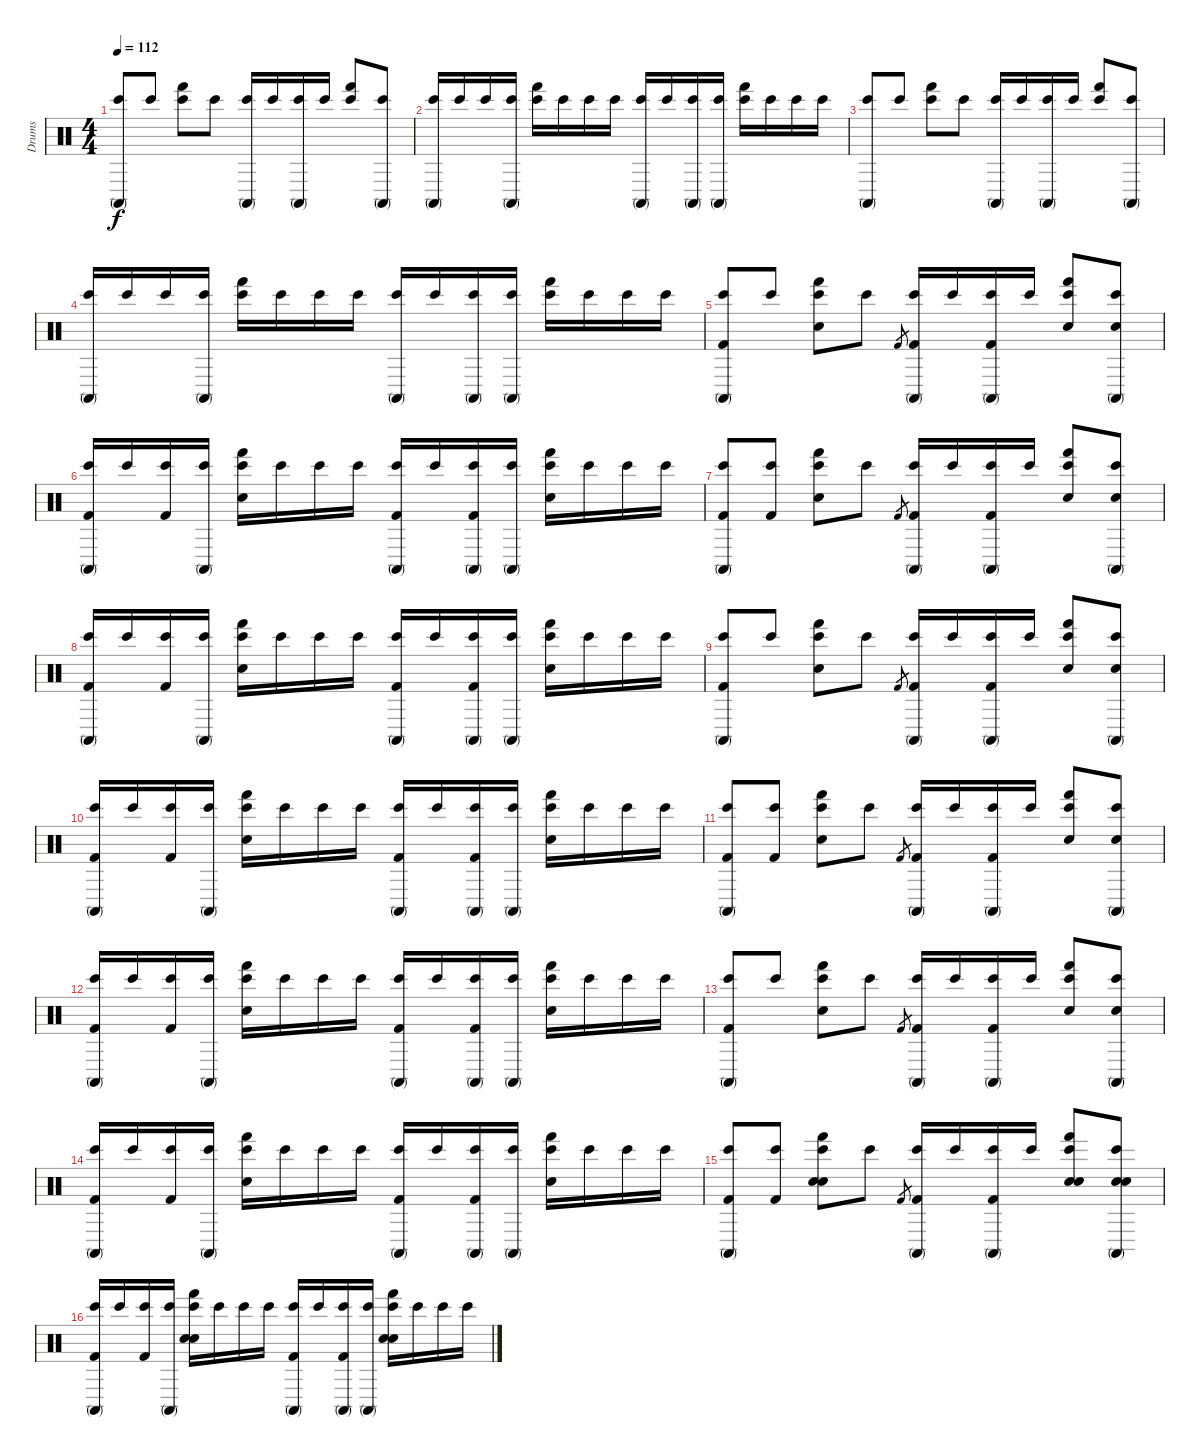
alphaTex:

\track ("Drums" "Drums") {instrument percussion}
\staff {score}
\articulation defaults
\ts (4 4)
\tempo 112
\clef neutral
\ks c
("Conga high (mute)" "Bongo High (hit)").8{dy f} "Bongo High (hit)".8 ("Hand (hit)" "Bongo High (hit)").8 "Bongo High (hit)".8 ("Conga high (mute)" "Bongo High (hit)").16 "Bongo High (hit)".16 ("Conga high (mute)" "Bongo High (hit)").16 "Bongo High (hit)".16 ("Hand (hit)" "Bongo High (hit)").8 ("Conga high (mute)" "Bongo High (hit)").8 |
("Conga high (mute)" "Bongo High (hit)").16 "Bongo High (hit)".16 "Bongo High (hit)".16 ("Conga high (mute)" "Bongo High (hit)").16 ("Hand (hit)" "Bongo High (hit)").16 "Bongo High (hit)".16 "Bongo High (hit)".16 "Bongo High (hit)".16 ("Conga high (mute)" "Bongo High (hit)").16 "Bongo High (hit)".16 ("Conga high (mute)" "Bongo High (hit)").16 ("Conga high (mute)" "Bongo High (hit)").16 ("Hand (hit)" "Bongo High (hit)").16 "Bongo High (hit)".16 "Bongo High (hit)".16 "Bongo High (hit)".16 |
("Conga high (mute)" "Bongo High (hit)").8 "Bongo High (hit)".8 ("Hand (hit)" "Bongo High (hit)").8 "Bongo High (hit)".8 ("Conga high (mute)" "Bongo High (hit)").16 "Bongo High (hit)".16 ("Conga high (mute)" "Bongo High (hit)").16 "Bongo High (hit)".16 ("Hand (hit)" "Bongo High (hit)").8 ("Conga high (mute)" "Bongo High (hit)").8 |
("Conga high (mute)" "Bongo High (hit)").16 "Bongo High (hit)".16 "Bongo High (hit)".16 ("Conga high (mute)" "Bongo High (hit)").16 ("Hand (hit)" "Bongo High (hit)").16 "Bongo High (hit)".16 "Bongo High (hit)".16 "Bongo High (hit)".16 ("Conga high (mute)" "Bongo High (hit)").16 "Bongo High (hit)".16 ("Conga high (mute)" "Bongo High (hit)").16 ("Conga high (mute)" "Bongo High (hit)").16 ("Hand (hit)" "Bongo High (hit)").16 "Bongo High (hit)".16 "Bongo High (hit)".16 "Bongo High (hit)".16 |
("Conga high (mute)" "Bongo High (hit)" "Kick (hit) 2").8 "Bongo High (hit)".8 ("Hand (hit)" "Bongo High (hit)" "Snare (hit) 2").8 "Bongo High (hit)".8 "Kick (hit) 2".8{gr} ("Conga high (mute)" "Bongo High (hit)" "Kick (hit) 2").16 "Bongo High (hit)".16 ("Conga high (mute)" "Bongo High (hit)" "Kick (hit) 2").16 "Bongo High (hit)".16 ("Hand (hit)" "Bongo High (hit)" "Snare (hit) 2").8 ("Conga high (mute)" "Bongo High (hit)" "Snare (hit) 2").8 |
("Conga high (mute)" "Bongo High (hit)" "Kick (hit) 2").16 "Bongo High (hit)".16 ("Bongo High (hit)" "Kick (hit) 2").16 ("Conga high (mute)" "Bongo High (hit)").16 ("Hand (hit)" "Bongo High (hit)" "Snare (hit) 2").16 "Bongo High (hit)".16 "Bongo High (hit)".16 "Bongo High (hit)".16 ("Conga high (mute)" "Bongo High (hit)" "Kick (hit) 2").16 "Bongo High (hit)".16 ("Conga high (mute)" "Bongo High (hit)" "Kick (hit) 2").16 ("Conga high (mute)" "Bongo High (hit)").16 ("Hand (hit)" "Bongo High (hit)" "Snare (hit) 2").16 "Bongo High (hit)".16 "Bongo High (hit)".16 "Bongo High (hit)".16 |
("Conga high (mute)" "Bongo High (hit)" "Kick (hit) 2").8 ("Bongo High (hit)" "Kick (hit) 2").8 ("Hand (hit)" "Bongo High (hit)" "Snare (hit) 2").8 "Bongo High (hit)".8 "Kick (hit) 2".8{gr} ("Conga high (mute)" "Bongo High (hit)" "Kick (hit) 2").16 "Bongo High (hit)".16 ("Conga high (mute)" "Bongo High (hit)" "Kick (hit) 2").16 "Bongo High (hit)".16 ("Hand (hit)" "Bongo High (hit)" "Snare (hit) 2").8 ("Conga high (mute)" "Bongo High (hit)" "Snare (hit) 2").8 |
("Conga high (mute)" "Bongo High (hit)" "Kick (hit) 2").16 "Bongo High (hit)".16 ("Bongo High (hit)" "Kick (hit) 2").16 ("Conga high (mute)" "Bongo High (hit)").16 ("Hand (hit)" "Bongo High (hit)" "Snare (hit) 2").16 "Bongo High (hit)".16 "Bongo High (hit)".16 "Bongo High (hit)".16 ("Conga high (mute)" "Bongo High (hit)" "Kick (hit) 2").16 "Bongo High (hit)".16 ("Conga high (mute)" "Bongo High (hit)" "Kick (hit) 2").16 ("Conga high (mute)" "Bongo High (hit)").16 ("Hand (hit)" "Bongo High (hit)" "Snare (hit) 2").16 "Bongo High (hit)".16 "Bongo High (hit)".16 "Bongo High (hit)".16 |
("Conga high (mute)" "Bongo High (hit)" "Kick (hit) 2").8 "Bongo High (hit)".8 ("Hand (hit)" "Bongo High (hit)" "Snare (hit) 2").8 "Bongo High (hit)".8 "Kick (hit) 2".8{gr} ("Conga high (mute)" "Bongo High (hit)" "Kick (hit) 2").16 "Bongo High (hit)".16 ("Conga high (mute)" "Bongo High (hit)" "Kick (hit) 2").16 "Bongo High (hit)".16 ("Hand (hit)" "Bongo High (hit)" "Snare (hit) 2").8 ("Conga high (mute)" "Bongo High (hit)" "Snare (hit) 2").8 |
("Conga high (mute)" "Bongo High (hit)" "Kick (hit) 2").16 "Bongo High (hit)".16 ("Bongo High (hit)" "Kick (hit) 2").16 ("Conga high (mute)" "Bongo High (hit)").16 ("Hand (hit)" "Bongo High (hit)" "Snare (hit) 2").16 "Bongo High (hit)".16 "Bongo High (hit)".16 "Bongo High (hit)".16 ("Conga high (mute)" "Bongo High (hit)" "Kick (hit) 2").16 "Bongo High (hit)".16 ("Conga high (mute)" "Bongo High (hit)" "Kick (hit) 2").16 ("Conga high (mute)" "Bongo High (hit)").16 ("Hand (hit)" "Bongo High (hit)" "Snare (hit) 2").16 "Bongo High (hit)".16 "Bongo High (hit)".16 "Bongo High (hit)".16 |
("Conga high (mute)" "Bongo High (hit)" "Kick (hit) 2").8 ("Bongo High (hit)" "Kick (hit) 2").8 ("Hand (hit)" "Bongo High (hit)" "Snare (hit) 2").8 "Bongo High (hit)".8 "Kick (hit) 2".8{gr} ("Conga high (mute)" "Bongo High (hit)" "Kick (hit) 2").16 "Bongo High (hit)".16 ("Conga high (mute)" "Bongo High (hit)" "Kick (hit) 2").16 "Bongo High (hit)".16 ("Hand (hit)" "Bongo High (hit)" "Snare (hit) 2").8 ("Conga high (mute)" "Bongo High (hit)" "Snare (hit) 2").8 |
("Conga high (mute)" "Bongo High (hit)" "Kick (hit) 2").16 "Bongo High (hit)".16 ("Bongo High (hit)" "Kick (hit) 2").16 ("Conga high (mute)" "Bongo High (hit)").16 ("Hand (hit)" "Bongo High (hit)" "Snare (hit) 2").16 "Bongo High (hit)".16 "Bongo High (hit)".16 "Bongo High (hit)".16 ("Conga high (mute)" "Bongo High (hit)" "Kick (hit) 2").16 "Bongo High (hit)".16 ("Conga high (mute)" "Bongo High (hit)" "Kick (hit) 2").16 ("Conga high (mute)" "Bongo High (hit)").16 ("Hand (hit)" "Bongo High (hit)" "Snare (hit) 2").16 "Bongo High (hit)".16 "Bongo High (hit)".16 "Bongo High (hit)".16 |
("Conga high (mute)" "Bongo High (hit)" "Kick (hit) 2").8 "Bongo High (hit)".8 ("Hand (hit)" "Bongo High (hit)" "Snare (hit) 2").8 "Bongo High (hit)".8 "Kick (hit) 2".8{gr} ("Conga high (mute)" "Bongo High (hit)" "Kick (hit) 2").16 "Bongo High (hit)".16 ("Conga high (mute)" "Bongo High (hit)" "Kick (hit) 2").16 "Bongo High (hit)".16 ("Hand (hit)" "Bongo High (hit)" "Snare (hit) 2").8 ("Conga high (mute)" "Bongo High (hit)" "Snare (hit) 2").8 |
("Conga high (mute)" "Bongo High (hit)" "Kick (hit) 2").16 "Bongo High (hit)".16 ("Bongo High (hit)" "Kick (hit) 2").16 ("Conga high (mute)" "Bongo High (hit)").16 ("Hand (hit)" "Bongo High (hit)" "Snare (hit) 2").16 "Bongo High (hit)".16 "Bongo High (hit)".16 "Bongo High (hit)".16 ("Conga high (mute)" "Bongo High (hit)" "Kick (hit) 2").16 "Bongo High (hit)".16 ("Conga high (mute)" "Bongo High (hit)" "Kick (hit) 2").16 ("Conga high (mute)" "Bongo High (hit)").16 ("Hand (hit)" "Bongo High (hit)" "Snare (hit) 2").16 "Bongo High (hit)".16 "Bongo High (hit)".16 "Bongo High (hit)".16 |
("Conga high (mute)" "Bongo High (hit)" "Kick (hit) 2").8 ("Bongo High (hit)" "Kick (hit) 2").8 ("Hand (hit)" "Bongo High (hit)" "Electric Snare (hit)" "Snare (hit) 2").8 "Bongo High (hit)".8 "Kick (hit) 2".8{gr} ("Conga high (mute)" "Bongo High (hit)" "Kick (hit) 2").16 "Bongo High (hit)".16 ("Conga high (mute)" "Bongo High (hit)" "Kick (hit) 2").16 "Bongo High (hit)".16 ("Hand (hit)" "Bongo High (hit)" "Electric Snare (hit)" "Snare (hit) 2").8 ("Conga high (mute)" "Bongo High (hit)" "Electric Snare (hit)" "Snare (hit) 2").8 |
("Conga high (mute)" "Bongo High (hit)" "Kick (hit) 2").16 "Bongo High (hit)".16 ("Bongo High (hit)" "Kick (hit) 2").16 ("Conga high (mute)" "Bongo High (hit)").16 ("Hand (hit)" "Bongo High (hit)" "Electric Snare (hit)" "Snare (hit) 2").16 "Bongo High (hit)".16 "Bongo High (hit)".16 "Bongo High (hit)".16 ("Conga high (mute)" "Bongo High (hit)" "Kick (hit) 2").16 "Bongo High (hit)".16 ("Conga high (mute)" "Bongo High (hit)" "Kick (hit) 2").16 ("Conga high (mute)" "Bongo High (hit)").16 ("Hand (hit)" "Bongo High (hit)" "Electric Snare (hit)" "Snare (hit) 2").16 "Bongo High (hit)".16 "Bongo High (hit)".16 "Bongo High (hit)".16
